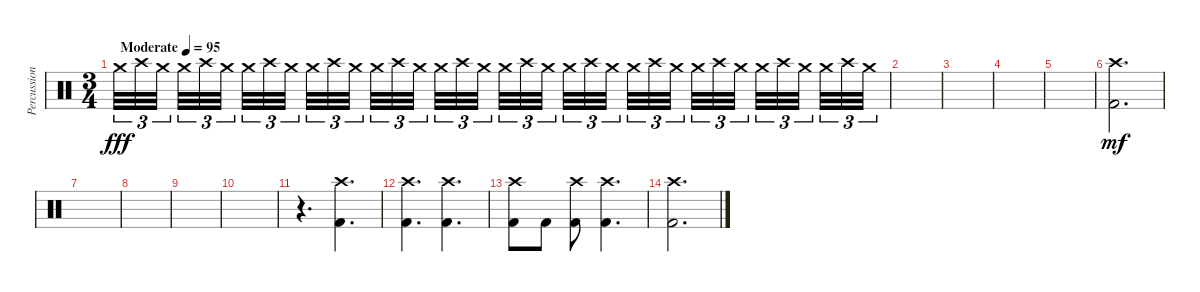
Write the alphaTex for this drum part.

\track ("Percussion" "Percussion") {instrument percussion}
\staff {score}
\articulation defaults
\ts (3 4)
\tempo (95 "Moderate")
\clef neutral
\ks c "Crash medium (hit)".32{tu (3 2) dy fff volume 0} "Crash high (hit)".32{tu (3 2) volume 13} "Crash medium (hit)".32{tu (3 2) beam splitsecondary} "Crash medium (hit)".32{tu (3 2)} "Crash high (hit)".32{tu (3 2)} "Crash medium (hit)".32{tu (3 2) beam splitsecondary} "Crash medium (hit)".32{tu (3 2)} "Crash high (hit)".32{tu (3 2)} "Crash medium (hit)".32{tu (3 2) beam splitsecondary} "Crash medium (hit)".32{tu (3 2)} "Crash high (hit)".32{tu (3 2)} "Crash medium (hit)".32{tu (3 2)} "Crash medium (hit)".32{tu (3 2)} "Crash high (hit)".32{tu (3 2)} "Crash medium (hit)".32{tu (3 2) beam splitsecondary} "Crash medium (hit)".32{tu (3 2)} "Crash high (hit)".32{tu (3 2)} "Crash medium (hit)".32{tu (3 2) beam splitsecondary} "Crash medium (hit)".32{tu (3 2)} "Crash high (hit)".32{tu (3 2)} "Crash medium (hit)".32{tu (3 2) beam splitsecondary} "Crash medium (hit)".32{tu (3 2)} "Crash high (hit)".32{tu (3 2)} "Crash medium (hit)".32{tu (3 2)} "Crash medium (hit)".32{tu (3 2)} "Crash high (hit)".32{tu (3 2)} "Crash medium (hit)".32{tu (3 2) beam splitsecondary} "Crash medium (hit)".32{tu (3 2)} "Crash high (hit)".32{tu (3 2)} "Crash medium (hit)".32{tu (3 2) beam splitsecondary} "Crash medium (hit)".32{tu (3 2)} "Crash high (hit)".32{tu (3 2)} "Crash medium (hit)".32{tu (3 2) beam splitsecondary} "Crash medium (hit)".32{tu (3 2)} "Crash high (hit)".32{tu (3 2)} "Crash medium (hit)".32{tu (3 2)}
|
|
|
|
|
("Crash high (hit)" "Kick (hit) 2").2{d dy mf} |
|
|
|
|
r.4{d} ("Crash high (hit)" "Kick (hit) 2").4{d} |
("Crash high (hit)" "Kick (hit) 2").4{d} ("Crash high (hit)" "Kick (hit) 2").4{d} |
("Crash high (hit)" "Kick (hit) 2").8 "Kick (hit) 2".8 ("Crash high (hit)" "Kick (hit) 2").8 ("Crash high (hit)" "Kick (hit) 2").4{d} |
("Crash high (hit)" "Kick (hit) 2").2{d}
